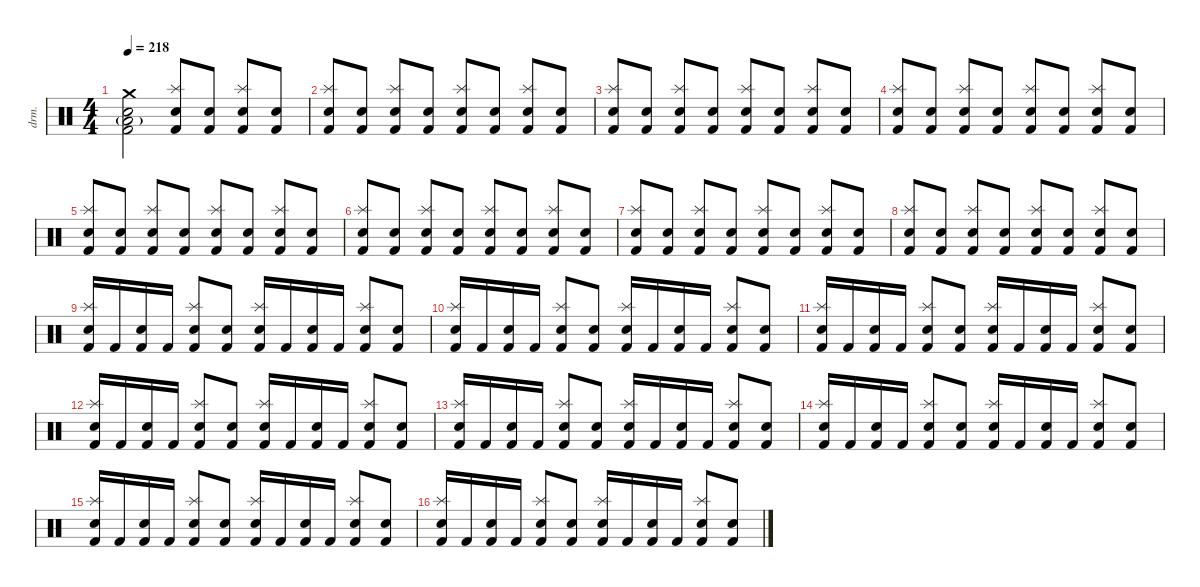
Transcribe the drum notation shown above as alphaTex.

\defaultSystemsLayout 4
\hideDynamics
\bracketExtendMode nobrackets
\otherSystemsTrackNameOrientation horizontal
\track ("Drums" "drm.") {instrument percussion}
\staff {score}
\articulation defaults
\ts (4 4)
\beaming (8 2 2 2 2)
\tempo 218
\clef neutral
\ks c
("Crash medium (hit)" "Low Floor Tom (hit)"{g} "Snare (hit) 2" "Kick (hit) 2").2{dy f beam Down} ("Splash (hit)" "Snare (hit) 2" "Kick (hit) 2").8{beam Up} ("Snare (hit) 2" "Kick (hit) 2").8{beam Up} ("Splash (hit)" "Snare (hit) 2" "Kick (hit) 2").8{beam Up} ("Snare (hit) 2" "Kick (hit) 2").8{beam Up} |
("Splash (hit)" "Snare (hit) 2" "Kick (hit) 2").8{beam Up} ("Snare (hit) 2" "Kick (hit) 2").8{beam Up} ("Splash (hit)" "Snare (hit) 2" "Kick (hit) 2").8{beam Up} ("Snare (hit) 2" "Kick (hit) 2").8{beam Up} ("Splash (hit)" "Snare (hit) 2" "Kick (hit) 2").8{beam Up} ("Snare (hit) 2" "Kick (hit) 2").8{beam Up} ("Splash (hit)" "Snare (hit) 2" "Kick (hit) 2").8{beam Up} ("Snare (hit) 2" "Kick (hit) 2").8{beam Up} |
("Splash (hit)" "Snare (hit) 2" "Kick (hit) 2").8{beam Up} ("Snare (hit) 2" "Kick (hit) 2").8{beam Up} ("Splash (hit)" "Snare (hit) 2" "Kick (hit) 2").8{beam Up} ("Snare (hit) 2" "Kick (hit) 2").8{beam Up} ("Splash (hit)" "Snare (hit) 2" "Kick (hit) 2").8{beam Up} ("Snare (hit) 2" "Kick (hit) 2").8{beam Up} ("Splash (hit)" "Snare (hit) 2" "Kick (hit) 2").8{beam Up} ("Snare (hit) 2" "Kick (hit) 2").8{beam Up} |
("Splash (hit)" "Snare (hit) 2" "Kick (hit) 2").8{beam Up} ("Snare (hit) 2" "Kick (hit) 2").8{beam Up} ("Splash (hit)" "Snare (hit) 2" "Kick (hit) 2").8{beam Up} ("Snare (hit) 2" "Kick (hit) 2").8{beam Up} ("Splash (hit)" "Snare (hit) 2" "Kick (hit) 2").8{beam Up} ("Snare (hit) 2" "Kick (hit) 2").8{beam Up} ("Splash (hit)" "Snare (hit) 2" "Kick (hit) 2").8{beam Up} ("Snare (hit) 2" "Kick (hit) 2").8{beam Up} |
("Splash (hit)" "Snare (hit) 2" "Kick (hit) 2").8{beam Up} ("Snare (hit) 2" "Kick (hit) 2").8{beam Up} ("Splash (hit)" "Snare (hit) 2" "Kick (hit) 2").8{beam Up} ("Snare (hit) 2" "Kick (hit) 2").8{beam Up} ("Splash (hit)" "Snare (hit) 2" "Kick (hit) 2").8{beam Up} ("Snare (hit) 2" "Kick (hit) 2").8{beam Up} ("Splash (hit)" "Snare (hit) 2" "Kick (hit) 2").8{beam Up} ("Snare (hit) 2" "Kick (hit) 2").8{beam Up} |
("Splash (hit)" "Snare (hit) 2" "Kick (hit) 2").8{beam Up} ("Snare (hit) 2" "Kick (hit) 2").8{beam Up} ("Splash (hit)" "Snare (hit) 2" "Kick (hit) 2").8{beam Up} ("Snare (hit) 2" "Kick (hit) 2").8{beam Up} ("Splash (hit)" "Snare (hit) 2" "Kick (hit) 2").8{beam Up} ("Snare (hit) 2" "Kick (hit) 2").8{beam Up} ("Splash (hit)" "Snare (hit) 2" "Kick (hit) 2").8{beam Up} ("Snare (hit) 2" "Kick (hit) 2").8{beam Up} |
("Splash (hit)" "Snare (hit) 2" "Kick (hit) 2").8{beam Up} ("Snare (hit) 2" "Kick (hit) 2").8{beam Up} ("Splash (hit)" "Snare (hit) 2" "Kick (hit) 2").8{beam Up} ("Snare (hit) 2" "Kick (hit) 2").8{beam Up} ("Splash (hit)" "Snare (hit) 2" "Kick (hit) 2").8{beam Up} ("Snare (hit) 2" "Kick (hit) 2").8{beam Up} ("Splash (hit)" "Snare (hit) 2" "Kick (hit) 2").8{beam Up} ("Snare (hit) 2" "Kick (hit) 2").8{beam Up} |
("Splash (hit)" "Snare (hit) 2" "Kick (hit) 2").8{beam Up} ("Snare (hit) 2" "Kick (hit) 2").8{beam Up} ("Splash (hit)" "Snare (hit) 2" "Kick (hit) 2").8{beam Up} ("Snare (hit) 2" "Kick (hit) 2").8{beam Up} ("Splash (hit)" "Snare (hit) 2" "Kick (hit) 2").8{beam Up} ("Snare (hit) 2" "Kick (hit) 2").8{beam Up} ("Splash (hit)" "Snare (hit) 2" "Kick (hit) 2").8{beam Up} ("Snare (hit) 2" "Kick (hit) 2").8{beam Up} |
("Splash (hit)" "Snare (hit) 2" "Kick (hit) 2").16{beam Up} "Kick (hit) 2".16{beam Up} ("Snare (hit) 2" "Kick (hit) 2").16{beam Up} "Kick (hit) 2".16{beam Up} ("Splash (hit)" "Snare (hit) 2" "Kick (hit) 2").8{beam Up} ("Snare (hit) 2" "Kick (hit) 2").8{beam Up} ("Splash (hit)" "Snare (hit) 2" "Kick (hit) 2").16{beam Up} "Kick (hit) 2".16{beam Up} ("Snare (hit) 2" "Kick (hit) 2").16{beam Up} "Kick (hit) 2".16{beam Up} ("Splash (hit)" "Snare (hit) 2" "Kick (hit) 2").8{beam Up} ("Snare (hit) 2" "Kick (hit) 2").8{beam Up} |
("Splash (hit)" "Snare (hit) 2" "Kick (hit) 2").16{beam Up} "Kick (hit) 2".16{beam Up} ("Snare (hit) 2" "Kick (hit) 2").16{beam Up} "Kick (hit) 2".16{beam Up} ("Splash (hit)" "Snare (hit) 2" "Kick (hit) 2").8{beam Up} ("Snare (hit) 2" "Kick (hit) 2").8{beam Up} ("Splash (hit)" "Snare (hit) 2" "Kick (hit) 2").16{beam Up} "Kick (hit) 2".16{beam Up} ("Snare (hit) 2" "Kick (hit) 2").16{beam Up} "Kick (hit) 2".16{beam Up} ("Splash (hit)" "Snare (hit) 2" "Kick (hit) 2").8{beam Up} ("Snare (hit) 2" "Kick (hit) 2").8{beam Up} |
("Splash (hit)" "Snare (hit) 2" "Kick (hit) 2").16{beam Up} "Kick (hit) 2".16{beam Up} ("Snare (hit) 2" "Kick (hit) 2").16{beam Up} "Kick (hit) 2".16{beam Up} ("Splash (hit)" "Snare (hit) 2" "Kick (hit) 2").8{beam Up} ("Snare (hit) 2" "Kick (hit) 2").8{beam Up} ("Splash (hit)" "Snare (hit) 2" "Kick (hit) 2").16{beam Up} "Kick (hit) 2".16{beam Up} ("Snare (hit) 2" "Kick (hit) 2").16{beam Up} "Kick (hit) 2".16{beam Up} ("Splash (hit)" "Snare (hit) 2" "Kick (hit) 2").8{beam Up} ("Snare (hit) 2" "Kick (hit) 2").8{beam Up} |
("Splash (hit)" "Snare (hit) 2" "Kick (hit) 2").16{beam Up} "Kick (hit) 2".16{beam Up} ("Snare (hit) 2" "Kick (hit) 2").16{beam Up} "Kick (hit) 2".16{beam Up} ("Splash (hit)" "Snare (hit) 2" "Kick (hit) 2").8{beam Up} ("Snare (hit) 2" "Kick (hit) 2").8{beam Up} ("Splash (hit)" "Snare (hit) 2" "Kick (hit) 2").16{beam Up} "Kick (hit) 2".16{beam Up} ("Snare (hit) 2" "Kick (hit) 2").16{beam Up} "Kick (hit) 2".16{beam Up} ("Splash (hit)" "Snare (hit) 2" "Kick (hit) 2").8{beam Up} ("Snare (hit) 2" "Kick (hit) 2").8{beam Up} |
("Splash (hit)" "Snare (hit) 2" "Kick (hit) 2").16{beam Up} "Kick (hit) 2".16{beam Up} ("Snare (hit) 2" "Kick (hit) 2").16{beam Up} "Kick (hit) 2".16{beam Up} ("Splash (hit)" "Snare (hit) 2" "Kick (hit) 2").8{beam Up} ("Snare (hit) 2" "Kick (hit) 2").8{beam Up} ("Splash (hit)" "Snare (hit) 2" "Kick (hit) 2").16{beam Up} "Kick (hit) 2".16{beam Up} ("Snare (hit) 2" "Kick (hit) 2").16{beam Up} "Kick (hit) 2".16{beam Up} ("Splash (hit)" "Snare (hit) 2" "Kick (hit) 2").8{beam Up} ("Snare (hit) 2" "Kick (hit) 2").8{beam Up} |
("Splash (hit)" "Snare (hit) 2" "Kick (hit) 2").16{beam Up} "Kick (hit) 2".16{beam Up} ("Snare (hit) 2" "Kick (hit) 2").16{beam Up} "Kick (hit) 2".16{beam Up} ("Splash (hit)" "Snare (hit) 2" "Kick (hit) 2").8{beam Up} ("Snare (hit) 2" "Kick (hit) 2").8{beam Up} ("Splash (hit)" "Snare (hit) 2" "Kick (hit) 2").16{beam Up} "Kick (hit) 2".16{beam Up} ("Snare (hit) 2" "Kick (hit) 2").16{beam Up} "Kick (hit) 2".16{beam Up} ("Splash (hit)" "Snare (hit) 2" "Kick (hit) 2").8{beam Up} ("Snare (hit) 2" "Kick (hit) 2").8{beam Up} |
("Splash (hit)" "Snare (hit) 2" "Kick (hit) 2").16{beam Up} "Kick (hit) 2".16{beam Up} ("Snare (hit) 2" "Kick (hit) 2").16{beam Up} "Kick (hit) 2".16{beam Up} ("Splash (hit)" "Snare (hit) 2" "Kick (hit) 2").8{beam Up} ("Snare (hit) 2" "Kick (hit) 2").8{beam Up} ("Splash (hit)" "Snare (hit) 2" "Kick (hit) 2").16{beam Up} "Kick (hit) 2".16{beam Up} ("Snare (hit) 2" "Kick (hit) 2").16{beam Up} "Kick (hit) 2".16{beam Up} ("Splash (hit)" "Snare (hit) 2" "Kick (hit) 2").8{beam Up} ("Snare (hit) 2" "Kick (hit) 2").8{beam Up} |
("Splash (hit)" "Snare (hit) 2" "Kick (hit) 2").16{beam Up} "Kick (hit) 2".16{beam Up} ("Snare (hit) 2" "Kick (hit) 2").16{beam Up} "Kick (hit) 2".16{beam Up} ("Splash (hit)" "Snare (hit) 2" "Kick (hit) 2").8{beam Up} ("Snare (hit) 2" "Kick (hit) 2").8{beam Up} ("Splash (hit)" "Snare (hit) 2" "Kick (hit) 2").16{beam Up} "Kick (hit) 2".16{beam Up} ("Snare (hit) 2" "Kick (hit) 2").16{beam Up} "Kick (hit) 2".16{beam Up} ("Splash (hit)" "Snare (hit) 2" "Kick (hit) 2").8{beam Up} ("Snare (hit) 2" "Kick (hit) 2").8{beam Up}
